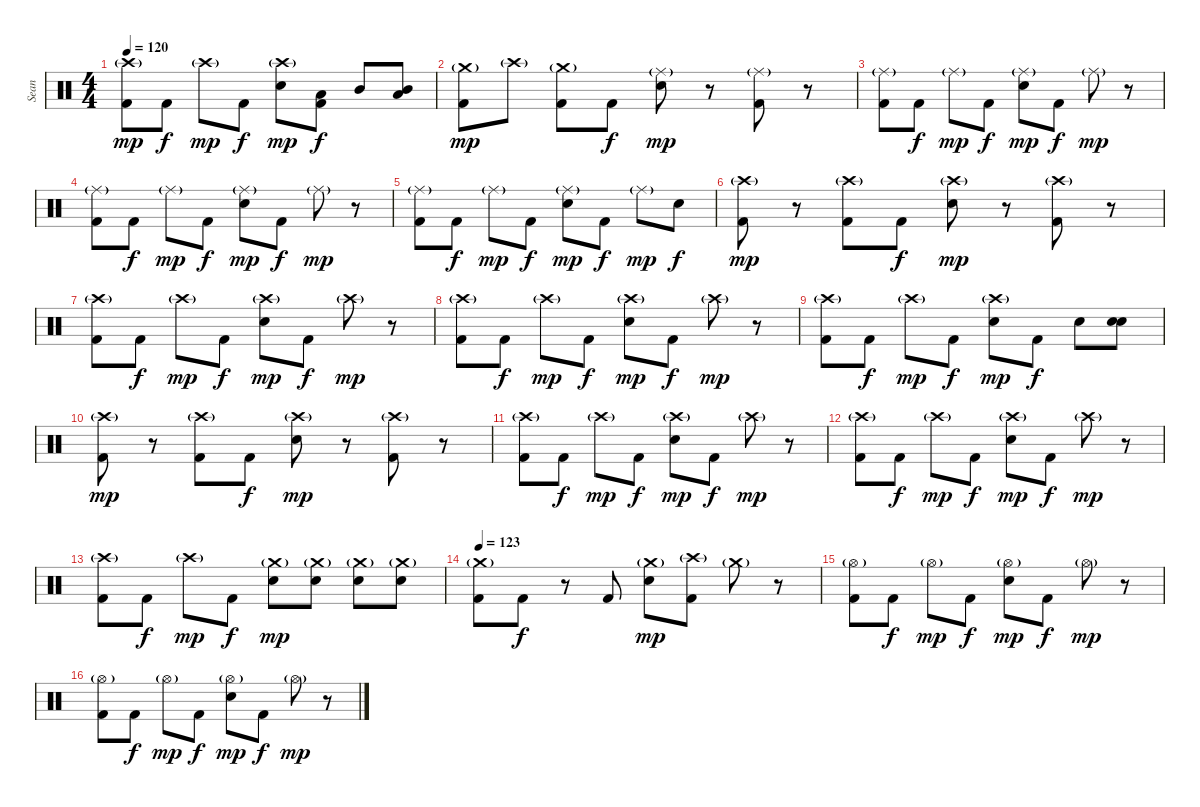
\track ("Sean" "Sean") {instrument percussion}
\staff {score}
\articulation defaults
\ts (4 4)
\tempo 120
\clef neutral
\ks c
("Crash high (hit)"{g} "Kick (hit) 2").8{dy mp} "Kick (hit) 2".8{dy f} "Crash high (hit)"{g}.8{dy mp} "Kick (hit) 2".8{dy f} ("Crash high (hit)"{g} "Electric Snare (hit)").8{dy mp} ("Low Tom (hit)" "Kick (hit) 2").8{dy f} "Mid Tom (hit)".8 ("Mid Tom (hit)" "Low Tom (hit)").8{bd 480} |
("Crash medium (hit)"{g} "Kick (hit) 2").8{dy mp} "Crash high (hit)"{g}.8 ("Crash medium (hit)"{g} "Kick (hit) 2").8 "Kick (hit) 2".8{dy f} ("Ride (middle)"{g} "Electric Snare (hit)").8{dy mp} r.8 ("Ride (middle)"{g} "Kick (hit) 2").8 r.8 |
("Ride (middle)"{g} "Kick (hit) 2").8 "Kick (hit) 2".8{dy f} "Ride (middle)"{g}.8{dy mp} "Kick (hit) 2".8{dy f} ("Ride (middle)"{g} "Electric Snare (hit)").8{dy mp} "Kick (hit) 2".8{dy f} "Ride (middle)"{g}.8{dy mp} r.8 |
("Ride (middle)"{g} "Kick (hit) 2").8 "Kick (hit) 2".8{dy f} "Ride (middle)"{g}.8{dy mp} "Kick (hit) 2".8{dy f} ("Ride (middle)"{g} "Electric Snare (hit)").8{dy mp} "Kick (hit) 2".8{dy f} "Ride (middle)"{g}.8{dy mp} r.8 |
("Ride (middle)"{g} "Kick (hit) 2").8 "Kick (hit) 2".8{dy f} "Ride (middle)"{g}.8{dy mp} "Kick (hit) 2".8{dy f} ("Ride (middle)"{g} "Electric Snare (hit)").8{dy mp} "Kick (hit) 2".8{dy f} "Ride (middle)"{g}.8{dy mp} "Electric Snare (hit)".8{dy f} |
("Crash high (hit)"{g} "Kick (hit) 2").8{dy mp} r.8 ("Crash high (hit)"{g} "Kick (hit) 2").8 "Kick (hit) 2".8{dy f} ("Crash high (hit)"{g} "Electric Snare (hit)").8{dy mp} r.8 ("Crash high (hit)"{g} "Kick (hit) 2").8 r.8 |
("Crash high (hit)"{g} "Kick (hit) 2").8 "Kick (hit) 2".8{dy f} "Crash high (hit)"{g}.8{dy mp} "Kick (hit) 2".8{dy f} ("Crash high (hit)"{g} "Electric Snare (hit)").8{dy mp} "Kick (hit) 2".8{dy f} "Crash high (hit)"{g}.8{dy mp} r.8 |
("Crash high (hit)"{g} "Kick (hit) 2").8 "Kick (hit) 2".8{dy f} "Crash high (hit)"{g}.8{dy mp} "Kick (hit) 2".8{dy f} ("Crash high (hit)"{g} "Electric Snare (hit)").8{dy mp} "Kick (hit) 2".8{dy f} "Crash high (hit)"{g}.8{dy mp} r.8 |
("Crash high (hit)"{g} "Kick (hit) 2").8 "Kick (hit) 2".8{dy f} "Crash high (hit)"{g}.8{dy mp} "Kick (hit) 2".8{dy f} ("Crash high (hit)"{g} "Electric Snare (hit)").8{dy mp} "Kick (hit) 2".8{dy f} "Electric Snare (hit)".8 ("Electric Snare (hit)" "Electric Snare (hit)").8{bd 480} |
("Crash high (hit)"{g} "Kick (hit) 2").8{dy mp} r.8 ("Crash high (hit)"{g} "Kick (hit) 2").8 "Kick (hit) 2".8{dy f} ("Crash high (hit)"{g} "Electric Snare (hit)").8{dy mp} r.8 ("Crash high (hit)"{g} "Kick (hit) 2").8 r.8 |
("Crash high (hit)"{g} "Kick (hit) 2").8 "Kick (hit) 2".8{dy f} "Crash high (hit)"{g}.8{dy mp} "Kick (hit) 2".8{dy f} ("Crash high (hit)"{g} "Electric Snare (hit)").8{dy mp} "Kick (hit) 2".8{dy f} "Crash high (hit)"{g}.8{dy mp} r.8 |
("Crash high (hit)"{g} "Kick (hit) 2").8 "Kick (hit) 2".8{dy f} "Crash high (hit)"{g}.8{dy mp} "Kick (hit) 2".8{dy f} ("Crash high (hit)"{g} "Electric Snare (hit)").8{dy mp} "Kick (hit) 2".8{dy f} "Crash high (hit)"{g}.8{dy mp} r.8 |
("Crash high (hit)"{g} "Kick (hit) 2").8 "Kick (hit) 2".8{dy f} "Crash high (hit)"{g}.8{dy mp} "Kick (hit) 2".8{dy f} ("Crash medium (hit)"{g} "Electric Snare (hit)").8{dy mp} ("Crash medium (hit)"{g} "Electric Snare (hit)").8 ("Crash medium (hit)"{g} "Electric Snare (hit)").8 ("Crash medium (hit)"{g} "Electric Snare (hit)").8 |
\tempo 123
("Crash medium (hit)"{g} "Kick (hit) 2").8 "Kick (hit) 2".8{dy f} r.8 "Kick (hit) 2".8 ("Crash medium (hit)"{g} "Electric Snare (hit)").8{dy mp} ("Crash high (hit)"{g} "Kick (hit) 2").8 "Crash medium (hit)"{g}.8 r.8 |
("Hi-Hat (open)"{g} "Kick (hit) 2").8 "Kick (hit) 2".8{dy f} "Hi-Hat (open)"{g}.8{dy mp} "Kick (hit) 2".8{dy f} ("Hi-Hat (open)"{g} "Electric Snare (hit)").8{dy mp} "Kick (hit) 2".8{dy f} "Hi-Hat (open)"{g}.8{dy mp} r.8 |
("Hi-Hat (open)"{g} "Kick (hit) 2").8 "Kick (hit) 2".8{dy f} "Hi-Hat (open)"{g}.8{dy mp} "Kick (hit) 2".8{dy f} ("Hi-Hat (open)"{g} "Electric Snare (hit)").8{dy mp} "Kick (hit) 2".8{dy f} "Hi-Hat (open)"{g}.8{dy mp} r.8
